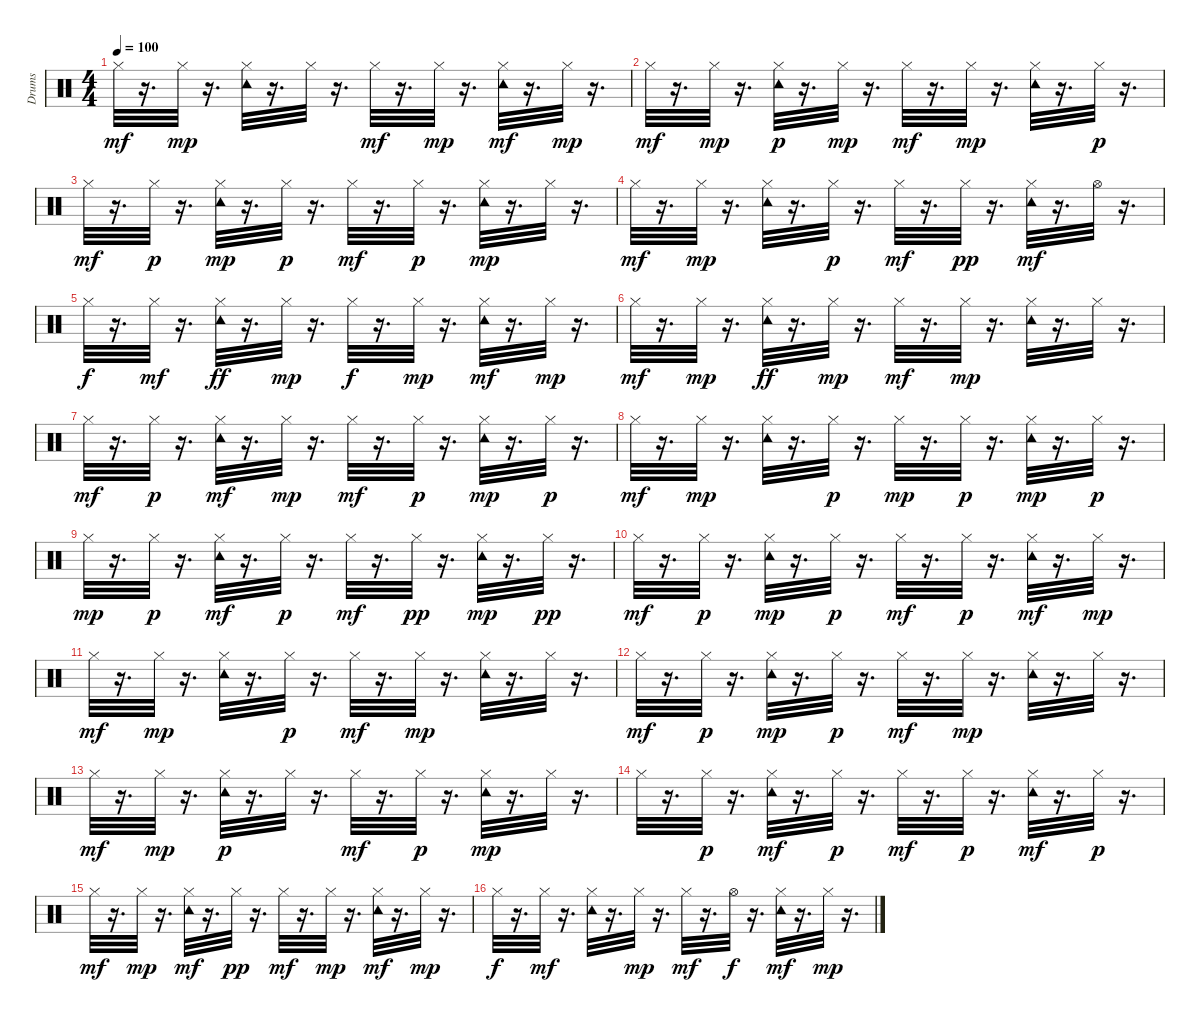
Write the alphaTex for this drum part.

\track ("Drums" "Drums") {instrument percussion}
\staff {score}
\articulation defaults
\ts (4 4)
\tempo 100
\clef neutral
\ks c "Hi-Hat (closed)".32{dy mf}
r.16{d} "Hi-Hat (closed)".32{dy mp} r.16{d} ("Hi-Hat (closed)" "Tambourine (hit)").32 r.16{d} "Hi-Hat (closed)".32 r.16{d} "Hi-Hat (closed)".32{dy mf} r.16{d} "Hi-Hat (closed)".32{dy mp} r.16{d} ("Hi-Hat (closed)" "Tambourine (hit)").32{dy mf} r.16{d} "Hi-Hat (closed)".32{dy mp} r.16{d} |
"Hi-Hat (closed)".32{dy mf} r.16{d} "Hi-Hat (closed)".32{dy mp} r.16{d} ("Hi-Hat (closed)" "Tambourine (hit)").32{dy p} r.16{d} "Hi-Hat (closed)".32{dy mp} r.16{d} "Hi-Hat (closed)".32{dy mf} r.16{d} "Hi-Hat (closed)".32{dy mp} r.16{d} ("Hi-Hat (closed)" "Tambourine (hit)").32 r.16{d} "Hi-Hat (closed)".32{dy p} r.16{d} |
"Hi-Hat (closed)".32{dy mf} r.16{d} "Hi-Hat (closed)".32{dy p} r.16{d} ("Hi-Hat (closed)" "Tambourine (hit)").32{dy mp} r.16{d} "Hi-Hat (closed)".32{dy p} r.16{d} "Hi-Hat (closed)".32{dy mf} r.16{d} "Hi-Hat (closed)".32{dy p} r.16{d} ("Hi-Hat (closed)" "Tambourine (hit)").32{dy mp} r.16{d} "Hi-Hat (closed)".32 r.16{d} |
"Hi-Hat (closed)".32{dy mf} r.16{d} "Hi-Hat (closed)".32{dy mp} r.16{d} ("Tambourine (hit)" "Hi-Hat (closed)").32 r.16{d} "Hi-Hat (closed)".32{dy p} r.16{d} "Hi-Hat (closed)".32{dy mf} r.16{d} "Hi-Hat (closed)".32{dy pp} r.16{d} ("Hi-Hat (closed)" "Tambourine (hit)").32{dy mf} r.16{d} "Hi-Hat (open)".32 r.16{d} |
"Hi-Hat (closed)".32{dy f} r.16{d} "Hi-Hat (closed)".32{dy mf} r.16{d} ("Tambourine (hit)" "Hi-Hat (closed)").32{dy ff} r.16{d} "Hi-Hat (closed)".32{dy mp} r.16{d} "Hi-Hat (closed)".32{dy f} r.16{d} "Hi-Hat (closed)".32{dy mp} r.16{d} ("Hi-Hat (closed)" "Tambourine (hit)").32{dy mf} r.16{d} "Hi-Hat (closed)".32{dy mp} r.16{d} |
"Hi-Hat (closed)".32{dy mf} r.16{d} "Hi-Hat (closed)".32{dy mp} r.16{d} ("Tambourine (hit)" "Hi-Hat (closed)").32{dy ff} r.16{d} "Hi-Hat (closed)".32{dy mp} r.16{d} "Hi-Hat (closed)".32{dy mf} r.16{d} "Hi-Hat (closed)".32{dy mp} r.16{d} ("Hi-Hat (closed)" "Tambourine (hit)").32 r.16{d} "Hi-Hat (closed)".32 r.16{d} |
"Hi-Hat (closed)".32{dy mf} r.16{d} "Hi-Hat (closed)".32{dy p} r.16{d} ("Hi-Hat (closed)" "Tambourine (hit)").32{dy mf} r.16{d} "Hi-Hat (closed)".32{dy mp} r.16{d} "Hi-Hat (closed)".32{dy mf} r.16{d} "Hi-Hat (closed)".32{dy p} r.16{d} ("Hi-Hat (closed)" "Tambourine (hit)").32{dy mp} r.16{d} "Hi-Hat (closed)".32{dy p} r.16{d} |
"Hi-Hat (closed)".32{dy mf} r.16{d} "Hi-Hat (closed)".32{dy mp} r.16{d} ("Hi-Hat (closed)" "Tambourine (hit)").32 r.16{d} "Hi-Hat (closed)".32{dy p} r.16{d} "Hi-Hat (closed)".32{dy mp} r.16{d} "Hi-Hat (closed)".32{dy p} r.16{d} ("Hi-Hat (closed)" "Tambourine (hit)").32{dy mp} r.16{d} "Hi-Hat (closed)".32{dy p} r.16{d} |
"Hi-Hat (closed)".32{dy mp} r.16{d} "Hi-Hat (closed)".32{dy p} r.16{d} ("Hi-Hat (closed)" "Tambourine (hit)").32{dy mf} r.16{d} "Hi-Hat (closed)".32{dy p} r.16{d} "Hi-Hat (closed)".32{dy mf} r.16{d} "Hi-Hat (closed)".32{dy pp} r.16{d} ("Hi-Hat (closed)" "Tambourine (hit)").32{dy mp} r.16{d} "Hi-Hat (closed)".32{dy pp} r.16{d} |
"Hi-Hat (closed)".32{dy mf} r.16{d} "Hi-Hat (closed)".32{dy p} r.16{d} ("Hi-Hat (closed)" "Tambourine (hit)").32{dy mp} r.16{d} "Hi-Hat (closed)".32{dy p} r.16{d} "Hi-Hat (closed)".32{dy mf} r.16{d} "Hi-Hat (closed)".32{dy p} r.16{d} ("Hi-Hat (closed)" "Tambourine (hit)").32{dy mf} r.16{d} "Hi-Hat (closed)".32{dy mp} r.16{d} |
"Hi-Hat (closed)".32{dy mf} r.16{d} "Hi-Hat (closed)".32{dy mp} r.16{d} ("Tambourine (hit)" "Hi-Hat (closed)").32 r.16{d} "Hi-Hat (closed)".32{dy p} r.16{d} "Hi-Hat (closed)".32{dy mf} r.16{d} "Hi-Hat (closed)".32{dy mp} r.16{d} ("Hi-Hat (closed)" "Tambourine (hit)").32 r.16{d} "Hi-Hat (closed)".32 r.16{d} |
"Hi-Hat (closed)".32{dy mf} r.16{d} "Hi-Hat (closed)".32{dy p} r.16{d} ("Hi-Hat (closed)" "Tambourine (hit)").32{dy mp} r.16{d} "Hi-Hat (closed)".32{dy p} r.16{d} "Hi-Hat (closed)".32{dy mf} r.16{d} "Hi-Hat (closed)".32{dy mp} r.16{d} ("Tambourine (hit)" "Hi-Hat (closed)").32 r.16{d} "Hi-Hat (closed)".32 r.16{d} |
"Hi-Hat (closed)".32{dy mf} r.16{d} "Hi-Hat (closed)".32{dy mp} r.16{d} ("Hi-Hat (closed)" "Tambourine (hit)").32{dy p} r.16{d} "Hi-Hat (closed)".32 r.16{d} "Hi-Hat (closed)".32{dy mf} r.16{d} "Hi-Hat (closed)".32{dy p} r.16{d} ("Hi-Hat (closed)" "Tambourine (hit)").32{dy mp} r.16{d} "Hi-Hat (closed)".32 r.16{d} |
"Hi-Hat (closed)".32 r.16{d} "Hi-Hat (closed)".32{dy p} r.16{d} ("Hi-Hat (closed)" "Tambourine (hit)").32{dy mf} r.16{d} "Hi-Hat (closed)".32{dy p} r.16{d} "Hi-Hat (closed)".32{dy mf} r.16{d} "Hi-Hat (closed)".32{dy p} r.16{d} ("Hi-Hat (closed)" "Tambourine (hit)").32{dy mf} r.16{d} "Hi-Hat (closed)".32{dy p} r.16{d} |
"Hi-Hat (closed)".32{dy mf} r.16{d} "Hi-Hat (closed)".32{dy mp} r.16{d} ("Hi-Hat (closed)" "Tambourine (hit)").32{dy mf} r.16{d} "Hi-Hat (closed)".32{dy pp} r.16{d} "Hi-Hat (closed)".32{dy mf} r.16{d} "Hi-Hat (closed)".32{dy mp} r.16{d} ("Hi-Hat (closed)" "Tambourine (hit)").32{dy mf} r.16{d} "Hi-Hat (closed)".32{dy mp} r.16{d} |
"Hi-Hat (closed)".32{dy f} r.16{d} "Hi-Hat (closed)".32{dy mf} r.16{d} ("Tambourine (hit)" "Hi-Hat (closed)").32 r.16{d} "Hi-Hat (closed)".32{dy mp} r.16{d} "Hi-Hat (closed)".32{dy mf} r.16{d} "Hi-Hat (open)".32{dy f} r.16{d} ("Tambourine (hit)" "Hi-Hat (closed)").32{dy mf} r.16{d} "Hi-Hat (closed)".32{dy mp} r.16{d}
